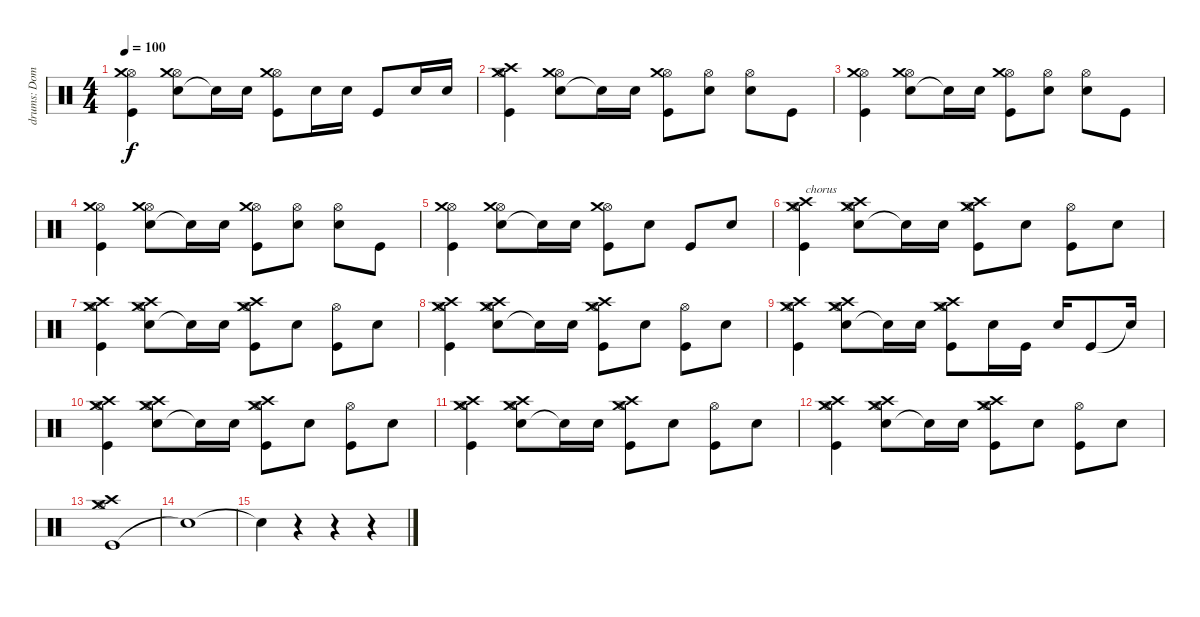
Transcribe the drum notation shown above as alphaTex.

\track ("drums: Dom" "drums: Dom") {instrument percussion}
\staff {score}
\articulation defaults
\ts (4 4)
\tempo 100
\clef neutral
\ks c
("Kick (hit)" "Hi-Hat (open)" "Crash medium (hit)").4{dy f} ("Snare (hit) 2" "Hi-Hat (open)" "Crash medium (hit)").8 "Snare (hit)"{t}.16 "Snare (hit) 2".16 ("Kick (hit)" "Hi-Hat (open)" "Crash medium (hit)").8 "Snare (hit) 2".16 "Snare (hit) 2".16 "Kick (hit)".8 "Snare (hit) 2".16 "Snare (hit) 2".16 |
("Kick (hit)" "Hi-Hat (open)" "Crash high (hit)" "Crash medium (hit)").4 ("Snare (hit) 2" "Hi-Hat (open)" "Crash medium (hit)").8 "Snare (hit)"{t}.16 "Snare (hit) 2".16 ("Kick (hit)" "Hi-Hat (open)" "Crash medium (hit)").8 ("Snare (hit) 2" "Hi-Hat (open)").8 ("Snare (hit) 2" "Hi-Hat (open)").8 "Kick (hit)".8 |
("Kick (hit)" "Hi-Hat (open)" "Crash medium (hit)").4 ("Snare (hit) 2" "Hi-Hat (open)" "Crash medium (hit)").8 "Snare (hit)"{t}.16 "Snare (hit) 2".16 ("Kick (hit)" "Hi-Hat (open)" "Crash medium (hit)").8 ("Snare (hit) 2" "Hi-Hat (open)").8 ("Snare (hit) 2" "Hi-Hat (open)").8 "Kick (hit)".8 |
("Kick (hit)" "Hi-Hat (open)" "Crash medium (hit)").4 ("Snare (hit) 2" "Hi-Hat (open)" "Crash medium (hit)").8 "Snare (hit)"{t}.16 "Snare (hit) 2".16 ("Kick (hit)" "Hi-Hat (open)" "Crash medium (hit)").8 ("Snare (hit) 2" "Hi-Hat (open)").8 ("Snare (hit) 2" "Hi-Hat (open)").8 "Kick (hit)".8 |
("Kick (hit)" "Hi-Hat (open)" "Crash medium (hit)").4 ("Snare (hit) 2" "Hi-Hat (open)" "Crash medium (hit)").8 "Snare (hit)"{t}.16 "Snare (hit) 2".16 ("Kick (hit)" "Hi-Hat (open)" "Crash medium (hit)").8 "Snare (hit) 2".8 "Kick (hit)".8 "Snare (hit) 2".8 |
("Kick (hit)" "Hi-Hat (open)" "Crash high (hit)" "Crash medium (hit)").4{txt "chorus"} ("Snare (hit) 2" "Hi-Hat (open)" "Crash high (hit)" "Crash medium (hit)").8 "Snare (hit)"{t}.16 "Snare (hit) 2".16 ("Kick (hit)" "Hi-Hat (open)" "Crash high (hit)" "Crash medium (hit)").8 "Snare (hit) 2".8 ("Kick (hit)" "Hi-Hat (open)").8 "Snare (hit) 2".8 |
("Kick (hit)" "Hi-Hat (open)" "Crash high (hit)" "Crash medium (hit)").4 ("Snare (hit) 2" "Hi-Hat (open)" "Crash high (hit)" "Crash medium (hit)").8 "Snare (hit)"{t}.16 "Snare (hit) 2".16 ("Kick (hit)" "Hi-Hat (open)" "Crash high (hit)" "Crash medium (hit)").8 "Snare (hit) 2".8 ("Kick (hit)" "Hi-Hat (open)").8 "Snare (hit) 2".8 |
("Kick (hit)" "Hi-Hat (open)" "Crash high (hit)" "Crash medium (hit)").4 ("Snare (hit) 2" "Hi-Hat (open)" "Crash high (hit)" "Crash medium (hit)").8 "Snare (hit)"{t}.16 "Snare (hit) 2".16 ("Kick (hit)" "Hi-Hat (open)" "Crash high (hit)" "Crash medium (hit)").8 "Snare (hit) 2".8 ("Kick (hit)" "Hi-Hat (open)").8 "Snare (hit) 2".8 |
("Kick (hit)" "Hi-Hat (open)" "Crash high (hit)" "Crash medium (hit)").4 ("Snare (hit) 2" "Hi-Hat (open)" "Crash high (hit)" "Crash medium (hit)").8 "Snare (hit)"{t}.16 "Snare (hit) 2".16 ("Kick (hit)" "Hi-Hat (open)" "Crash high (hit)" "Crash medium (hit)").8 "Snare (hit) 2".16 "Kick (hit)".16 "Snare (hit) 2".16 "Kick (hit)".8 "Snare (hit)"{t}.16 |
("Kick (hit)" "Hi-Hat (open)" "Crash high (hit)" "Crash medium (hit)").4 ("Snare (hit) 2" "Hi-Hat (open)" "Crash high (hit)" "Crash medium (hit)").8 "Snare (hit)"{t}.16 "Snare (hit) 2".16 ("Kick (hit)" "Hi-Hat (open)" "Crash high (hit)" "Crash medium (hit)").8 "Snare (hit) 2".8 ("Kick (hit)" "Hi-Hat (open)").8 "Snare (hit) 2".8 |
("Kick (hit)" "Hi-Hat (open)" "Crash high (hit)" "Crash medium (hit)").4 ("Snare (hit) 2" "Hi-Hat (open)" "Crash high (hit)" "Crash medium (hit)").8 "Snare (hit)"{t}.16 "Snare (hit) 2".16 ("Kick (hit)" "Hi-Hat (open)" "Crash high (hit)" "Crash medium (hit)").8 "Snare (hit) 2".8 ("Kick (hit)" "Hi-Hat (open)").8 "Snare (hit) 2".8 |
("Kick (hit)" "Hi-Hat (open)" "Crash high (hit)" "Crash medium (hit)").4 ("Snare (hit) 2" "Hi-Hat (open)" "Crash high (hit)" "Crash medium (hit)").8 "Snare (hit)"{t}.16 "Snare (hit) 2".16 ("Kick (hit)" "Hi-Hat (open)" "Crash high (hit)" "Crash medium (hit)").8 "Snare (hit) 2".8 ("Kick (hit)" "Hi-Hat (open)").8 "Snare (hit) 2".8 |
("Kick (hit)" "Hi-Hat (open)" "Crash high (hit)" "Crash medium (hit)").1 |
"Snare (hit)"{t}.1 |
"Snare (hit)"{t}.4 r.4 r.4 r.4
